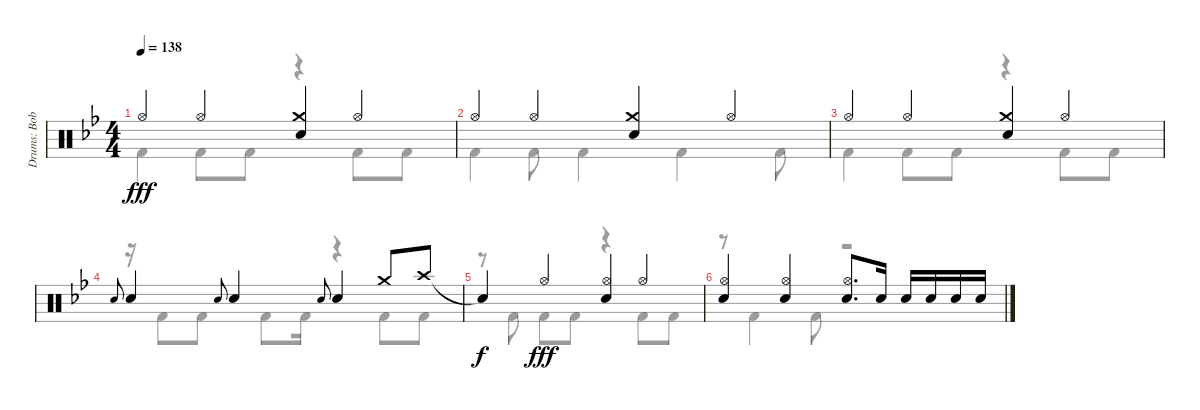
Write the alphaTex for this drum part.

\track ("Drums: Bobby" "Drums: Bob") {instrument percussion}
\staff {score}
\articulation defaults
\voice
\ts (4 4)
\tempo 138
\clef neutral
\ks bb "Hi-Hat (open)".4{dy fff} "Hi-Hat (open)".4
("Crash medium (hit)" "Snare (hit) 2").4 "Hi-Hat (open)".4 |
"Hi-Hat (open)".4 "Hi-Hat (open)".4 ("Crash medium (hit)" "Snare (hit) 2").4 "Hi-Hat (open)".4 |
"Hi-Hat (open)".4{volume 0} "Hi-Hat (open)".4 ("Crash medium (hit)" "Snare (hit) 2").4 "Hi-Hat (open)".4 |
"Electric Snare (hit)".8{gr onbeat} "Snare (hit) 2".4 "Electric Snare (hit)".8{gr onbeat} "Snare (hit) 2".4 "Electric Snare (hit)".8{gr onbeat} "Snare (hit) 2".4 "Crash medium (hit)".8 "Crash high (hit)".8 |
"Snare (hit)"{t}.4{dy f} "Hi-Hat (open)".4{dy fff} ("Hi-Hat (open)" "Snare (hit) 2").4 "Hi-Hat (open)".4 |
("Hi-Hat (open)" "Snare (hit) 2").4 ("Hi-Hat (open)" "Snare (hit) 2").4 ("Hi-Hat (open)" "Snare (hit) 2").8{d} "Snare (hit) 2".16 "Snare (hit) 2".16 "Snare (hit) 2".16 "Snare (hit) 2".16 "Snare (hit) 2".16
\voice
\clef neutral
\ottava regular
\simile none
\ks bb "Kick (hit) 2".4{dy fff} "Kick (hit) 2".8 "Kick (hit) 2".8
r.4 "Kick (hit) 2".8 "Kick (hit) 2".8 |
"Kick (hit) 2".4 "Kick (hit) 2".8 "Kick (hit) 2".4 "Kick (hit) 2".4 "Kick (hit) 2".8 |
"Kick (hit) 2".4 "Kick (hit) 2".8 "Kick (hit) 2".8 r.4 "Kick (hit) 2".8 "Kick (hit) 2".8 |
r.16 "Kick (hit) 2".8 "Kick (hit) 2".8 "Kick (hit) 2".8 "Kick (hit) 2".16 r.4 "Kick (hit) 2".8 "Kick (hit) 2".8 |
r.8 "Kick (hit) 2".8 "Kick (hit) 2".8 "Kick (hit) 2".8 r.4 "Kick (hit) 2".8 "Kick (hit) 2".8 |
r.8 "Kick (hit) 2".4 "Kick (hit) 2".8 r.2
